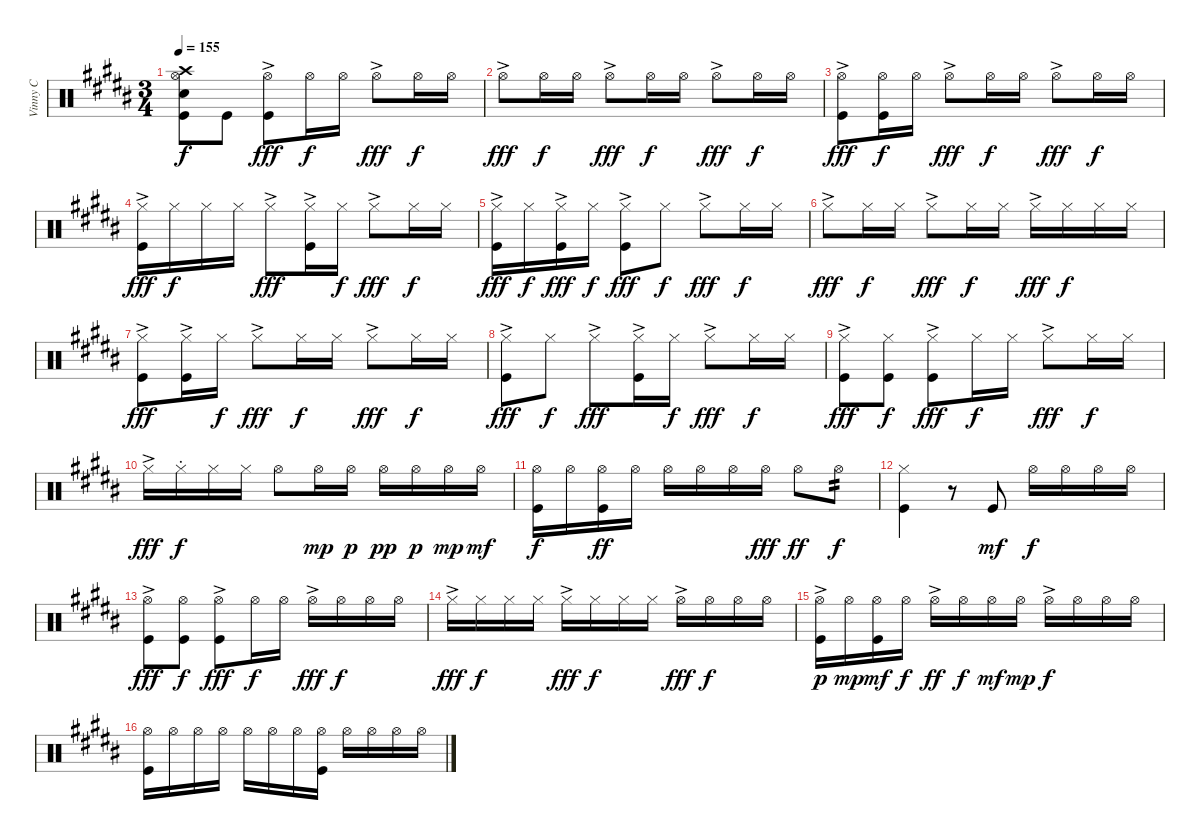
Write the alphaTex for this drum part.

\track ("Vinny C" "Vinny C") {instrument percussion}
\staff {score}
\articulation defaults
\ts (3 4)
\tempo 155
\clef neutral
\ks b
("Crash high (hit)" "Hi-Hat (open)" "Electric Snare (hit)" "Kick (hit)").8{dy f} "Kick (hit)".8 ("Hi-Hat (open)"{ac} "Kick (hit)"{ac}).8{dy fff} "Hi-Hat (open)".16{dy f} "Hi-Hat (open)".16 "Hi-Hat (open)"{ac}.8{dy fff} "Hi-Hat (open)".16{dy f} "Hi-Hat (open)".16 |
"Hi-Hat (open)"{ac}.8{dy fff} "Hi-Hat (open)".16{dy f} "Hi-Hat (open)".16 "Hi-Hat (open)"{ac}.8{dy fff} "Hi-Hat (open)".16{dy f} "Hi-Hat (open)".16 "Hi-Hat (open)"{ac}.8{dy fff} "Hi-Hat (open)".16{dy f} "Hi-Hat (open)".16 |
("Hi-Hat (open)"{ac} "Kick (hit)").8{dy fff} ("Hi-Hat (open)" "Kick (hit)").16{dy f} "Hi-Hat (open)".16 "Hi-Hat (open)"{ac}.8{dy fff} "Hi-Hat (open)".16{dy f} "Hi-Hat (open)".16 "Hi-Hat (open)"{ac}.8{dy fff} "Hi-Hat (open)".16{dy f} "Hi-Hat (open)".16 |
("Hi-Hat (closed)"{ac} "Kick (hit)"{ac}).16{dy fff} "Hi-Hat (closed)".16{dy f} "Hi-Hat (closed)".16 "Hi-Hat (closed)".16 "Hi-Hat (closed)"{ac}.8{dy fff} ("Hi-Hat (closed)" "Kick (hit)"{ac}).16 "Hi-Hat (closed)".16{dy f} "Hi-Hat (closed)"{ac}.8{dy fff} "Hi-Hat (closed)".16{dy f} "Hi-Hat (closed)".16 |
("Hi-Hat (closed)"{ac} "Kick (hit)"{ac}).16{dy fff} "Hi-Hat (closed)".16{dy f} ("Hi-Hat (closed)" "Kick (hit)"{ac}).16{dy fff} "Hi-Hat (closed)".16{dy f} ("Hi-Hat (closed)"{ac} "Kick (hit)"{ac}).8{dy fff} "Hi-Hat (closed)".8{dy f} "Hi-Hat (closed)"{ac}.8{dy fff} "Hi-Hat (closed)".16{dy f} "Hi-Hat (closed)".16 |
"Hi-Hat (closed)"{ac}.8{dy fff} "Hi-Hat (closed)".16{dy f} "Hi-Hat (closed)".16 "Hi-Hat (closed)"{ac}.8{dy fff} "Hi-Hat (closed)".16{dy f} "Hi-Hat (closed)".16 "Hi-Hat (closed)"{ac}.16{dy fff} "Hi-Hat (closed)".16{dy f} "Hi-Hat (closed)".16 "Hi-Hat (closed)".16 |
("Hi-Hat (closed)"{ac} "Kick (hit)"{ac}).8{dy fff} ("Hi-Hat (closed)" "Kick (hit)"{ac}).16 "Hi-Hat (closed)".16{dy f} "Hi-Hat (closed)"{ac}.8{dy fff} "Hi-Hat (closed)".16{dy f} "Hi-Hat (closed)".16 "Hi-Hat (closed)"{ac}.8{dy fff} "Hi-Hat (closed)".16{dy f} "Hi-Hat (closed)".16 |
("Hi-Hat (closed)"{ac} "Kick (hit)"{ac}).8{dy fff} "Hi-Hat (closed)".8{dy f} "Hi-Hat (closed)"{ac}.8{dy fff} ("Hi-Hat (closed)" "Kick (hit)"{ac}).16 "Hi-Hat (closed)".16{dy f} "Hi-Hat (closed)"{ac}.8{dy fff} "Hi-Hat (closed)".16{dy f} "Hi-Hat (closed)".16 |
("Hi-Hat (closed)"{ac} "Kick (hit)").8{dy fff} ("Hi-Hat (closed)" "Kick (hit)").8{dy f} ("Hi-Hat (closed)"{ac} "Kick (hit)").8{dy fff} "Hi-Hat (closed)".16{dy f} "Hi-Hat (closed)".16 "Hi-Hat (closed)"{ac}.8{dy fff} "Hi-Hat (closed)".16{dy f} "Hi-Hat (closed)".16 |
"Hi-Hat (closed)"{ac}.16{dy fff} "Hi-Hat (closed)"{st}.16{dy f} "Hi-Hat (closed)".16 "Hi-Hat (closed)".16 "Hi-Hat (open)".8 "Hi-Hat (open)".16{dy mp} "Hi-Hat (open)".16{dy p} "Hi-Hat (open)".16{dy pp} "Hi-Hat (open)".16{dy p} "Hi-Hat (open)".16{dy mp} "Hi-Hat (open)".16{dy mf} |
("Hi-Hat (open)" "Kick (hit)").16{dy f} "Hi-Hat (open)".16 ("Hi-Hat (open)" "Kick (hit)").16{dy ff} "Hi-Hat (open)".16 "Hi-Hat (open)".16 "Hi-Hat (open)".16 "Hi-Hat (open)".16 "Hi-Hat (open)".16{dy fff} "Hi-Hat (open)".8{dy ff} "Hi-Hat (open)".8{tp 2 dy f} |
("Hi-Hat (closed)"{tr (42 32)} "Kick (hit)").4 r.8 "Kick (hit)".8{dy mf} "Hi-Hat (open)".16{dy f} "Hi-Hat (open)".16 "Hi-Hat (open)".16 "Hi-Hat (open)".16 |
("Hi-Hat (open)"{ac} "Kick (hit)").8{dy fff} ("Hi-Hat (open)" "Kick (hit)").8{dy f} ("Hi-Hat (open)"{ac} "Kick (hit)").8{dy fff} "Hi-Hat (open)".16{dy f} "Hi-Hat (open)".16 "Hi-Hat (open)"{ac}.16{dy fff} "Hi-Hat (open)".16{dy f} "Hi-Hat (open)".16 "Hi-Hat (open)".16 |
"Hi-Hat (closed)"{ac}.16{dy fff} "Hi-Hat (closed)".16{dy f} "Hi-Hat (closed)".16 "Hi-Hat (closed)".16 "Hi-Hat (closed)"{ac}.16{dy fff} "Hi-Hat (closed)".16{dy f} "Hi-Hat (closed)".16 "Hi-Hat (closed)".16 "Hi-Hat (open)"{ac}.16{dy fff} "Hi-Hat (open)".16{dy f} "Hi-Hat (open)".16 "Hi-Hat (open)".16 |
("Hi-Hat (open)"{ac} "Kick (hit)").16{dy p} "Hi-Hat (open)".16{dy mp} ("Hi-Hat (open)" "Kick (hit)").16{dy mf} "Hi-Hat (open)".16{dy f} "Hi-Hat (open)"{ac}.16{dy ff} "Hi-Hat (open)".16{dy f} "Hi-Hat (open)".16{dy mf} "Hi-Hat (open)".16{dy mp} "Hi-Hat (open)"{ac}.16{dy f} "Hi-Hat (open)".16 "Hi-Hat (open)".16 "Hi-Hat (open)".16 |
("Hi-Hat (open)" "Kick (hit)").16 "Hi-Hat (open)".16 "Hi-Hat (open)".16 "Hi-Hat (open)".16 "Hi-Hat (open)".16 "Hi-Hat (open)".16 "Hi-Hat (open)".16 ("Hi-Hat (open)" "Kick (hit)").16 "Hi-Hat (open)".16 "Hi-Hat (open)".16 "Hi-Hat (open)".16 "Hi-Hat (open)".16
